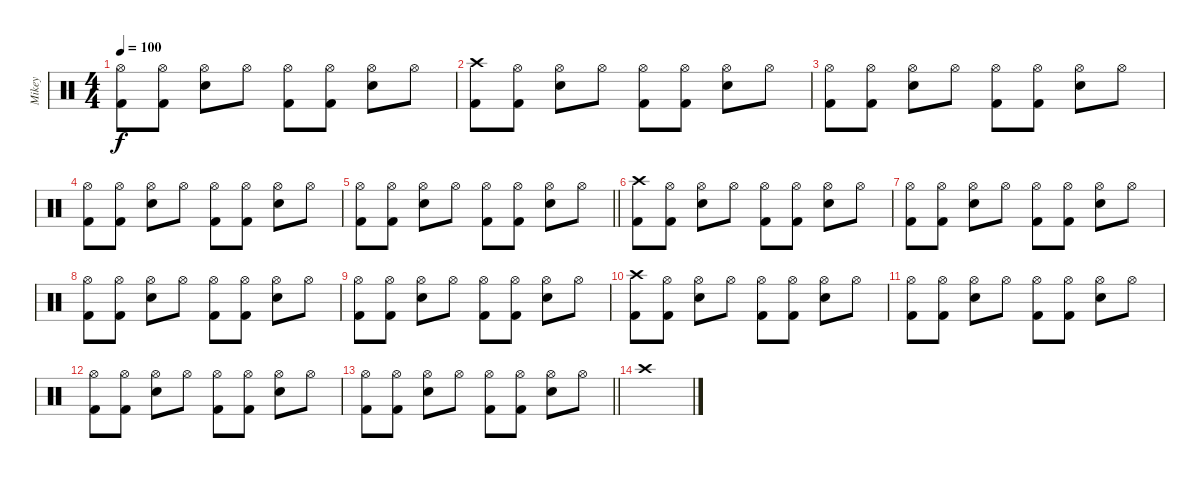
\track ("Mikey" "Mikey") {instrument percussion}
\staff {score}
\articulation defaults
\ts (4 4)
\tempo 100
\clef neutral
\ks c
("Hi-Hat (open)" "Kick (hit) 2").8{dy f} ("Hi-Hat (open)" "Kick (hit) 2").8 ("Hi-Hat (open)" "Snare (hit) 2").8 "Hi-Hat (open)".8 ("Hi-Hat (open)" "Kick (hit) 2").8 ("Hi-Hat (open)" "Kick (hit) 2").8 ("Hi-Hat (open)" "Snare (hit) 2").8 "Hi-Hat (open)".8 |
("Crash high (hit)" "Kick (hit) 2").8 ("Hi-Hat (open)" "Kick (hit) 2").8 ("Hi-Hat (open)" "Snare (hit) 2").8 "Hi-Hat (open)".8 ("Hi-Hat (open)" "Kick (hit) 2").8 ("Hi-Hat (open)" "Kick (hit) 2").8 ("Hi-Hat (open)" "Snare (hit) 2").8 "Hi-Hat (open)".8 |
("Hi-Hat (open)" "Kick (hit) 2").8 ("Hi-Hat (open)" "Kick (hit) 2").8 ("Hi-Hat (open)" "Snare (hit) 2").8 "Hi-Hat (open)".8 ("Hi-Hat (open)" "Kick (hit) 2").8 ("Hi-Hat (open)" "Kick (hit) 2").8 ("Hi-Hat (open)" "Snare (hit) 2").8 "Hi-Hat (open)".8 |
("Hi-Hat (open)" "Kick (hit) 2").8 ("Hi-Hat (open)" "Kick (hit) 2").8 ("Hi-Hat (open)" "Snare (hit) 2").8 "Hi-Hat (open)".8 ("Hi-Hat (open)" "Kick (hit) 2").8 ("Hi-Hat (open)" "Kick (hit) 2").8 ("Hi-Hat (open)" "Snare (hit) 2").8 "Hi-Hat (open)".8 |
\barLineRight lightlight
("Hi-Hat (open)" "Kick (hit) 2").8 ("Hi-Hat (open)" "Kick (hit) 2").8 ("Hi-Hat (open)" "Snare (hit) 2").8 "Hi-Hat (open)".8 ("Hi-Hat (open)" "Kick (hit) 2").8 ("Hi-Hat (open)" "Kick (hit) 2").8 ("Hi-Hat (open)" "Snare (hit) 2").8 "Hi-Hat (open)".8 |
("Crash high (hit)" "Kick (hit) 2").8 ("Hi-Hat (open)" "Kick (hit) 2").8 ("Hi-Hat (open)" "Snare (hit) 2").8 "Hi-Hat (open)".8 ("Hi-Hat (open)" "Kick (hit) 2").8 ("Hi-Hat (open)" "Kick (hit) 2").8 ("Hi-Hat (open)" "Snare (hit) 2").8 "Hi-Hat (open)".8 |
("Hi-Hat (open)" "Kick (hit) 2").8 ("Hi-Hat (open)" "Kick (hit) 2").8 ("Hi-Hat (open)" "Snare (hit) 2").8 "Hi-Hat (open)".8 ("Hi-Hat (open)" "Kick (hit) 2").8 ("Hi-Hat (open)" "Kick (hit) 2").8 ("Hi-Hat (open)" "Snare (hit) 2").8 "Hi-Hat (open)".8 |
("Hi-Hat (open)" "Kick (hit) 2").8 ("Hi-Hat (open)" "Kick (hit) 2").8 ("Hi-Hat (open)" "Snare (hit) 2").8 "Hi-Hat (open)".8 ("Hi-Hat (open)" "Kick (hit) 2").8 ("Hi-Hat (open)" "Kick (hit) 2").8 ("Hi-Hat (open)" "Snare (hit) 2").8 "Hi-Hat (open)".8 |
("Hi-Hat (open)" "Kick (hit) 2").8 ("Hi-Hat (open)" "Kick (hit) 2").8 ("Hi-Hat (open)" "Snare (hit) 2").8 "Hi-Hat (open)".8 ("Hi-Hat (open)" "Kick (hit) 2").8 ("Hi-Hat (open)" "Kick (hit) 2").8 ("Hi-Hat (open)" "Snare (hit) 2").8 "Hi-Hat (open)".8 |
("Crash high (hit)" "Kick (hit) 2").8 ("Hi-Hat (open)" "Kick (hit) 2").8 ("Hi-Hat (open)" "Snare (hit) 2").8 "Hi-Hat (open)".8 ("Hi-Hat (open)" "Kick (hit) 2").8 ("Hi-Hat (open)" "Kick (hit) 2").8 ("Hi-Hat (open)" "Snare (hit) 2").8 "Hi-Hat (open)".8 |
("Hi-Hat (open)" "Kick (hit) 2").8 ("Hi-Hat (open)" "Kick (hit) 2").8 ("Hi-Hat (open)" "Snare (hit) 2").8 "Hi-Hat (open)".8 ("Hi-Hat (open)" "Kick (hit) 2").8 ("Hi-Hat (open)" "Kick (hit) 2").8 ("Hi-Hat (open)" "Snare (hit) 2").8 "Hi-Hat (open)".8 |
("Hi-Hat (open)" "Kick (hit) 2").8 ("Hi-Hat (open)" "Kick (hit) 2").8 ("Hi-Hat (open)" "Snare (hit) 2").8 "Hi-Hat (open)".8 ("Hi-Hat (open)" "Kick (hit) 2").8 ("Hi-Hat (open)" "Kick (hit) 2").8 ("Hi-Hat (open)" "Snare (hit) 2").8 "Hi-Hat (open)".8 |
\barLineRight lightlight
("Hi-Hat (open)" "Kick (hit) 2").8 ("Hi-Hat (open)" "Kick (hit) 2").8 ("Hi-Hat (open)" "Snare (hit) 2").8 "Hi-Hat (open)".8 ("Hi-Hat (open)" "Kick (hit) 2").8 ("Hi-Hat (open)" "Kick (hit) 2").8 ("Hi-Hat (open)" "Snare (hit) 2").8 "Hi-Hat (open)".8 |
"Crash high (hit)".1
